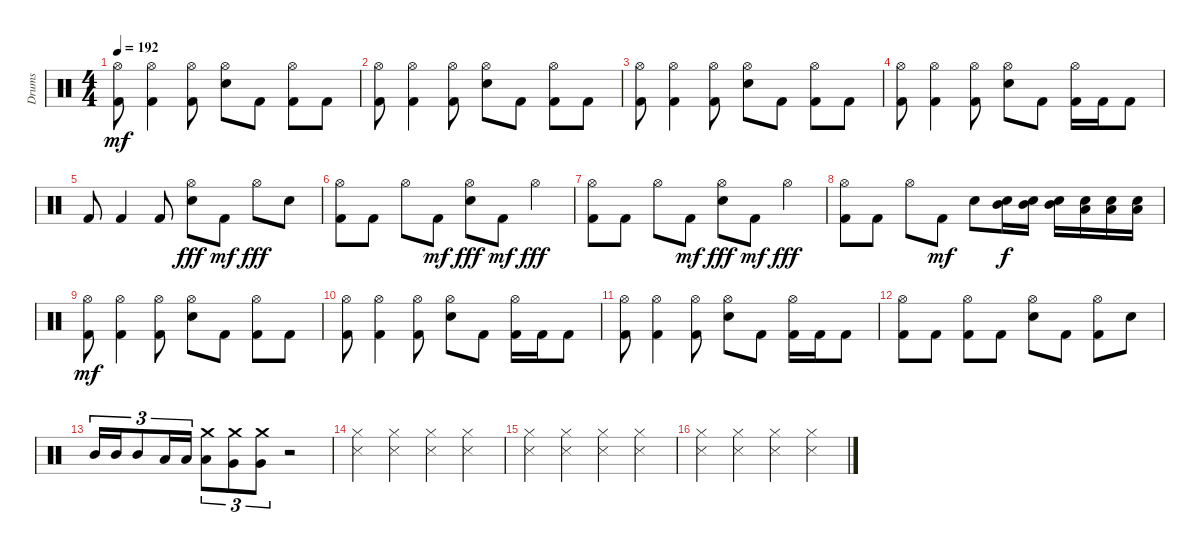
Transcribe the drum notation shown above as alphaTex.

\track ("Drums" "Drums") {instrument percussion}
\staff {score}
\articulation defaults
\ts (4 4)
\tempo 192
\clef neutral
\ks c
("Hi-Hat (open)" "Kick (hit) 2").8{dy mf} ("Hi-Hat (open)" "Kick (hit) 2").4 ("Hi-Hat (open)" "Kick (hit) 2").8 ("Hi-Hat (open)" "Electric Snare (hit)").8 "Kick (hit) 2".8 ("Hi-Hat (open)" "Kick (hit) 2").8 "Kick (hit) 2".8 |
("Hi-Hat (open)" "Kick (hit) 2").8 ("Hi-Hat (open)" "Kick (hit) 2").4 ("Hi-Hat (open)" "Kick (hit) 2").8 ("Hi-Hat (open)" "Electric Snare (hit)").8 "Kick (hit) 2".8 ("Hi-Hat (open)" "Kick (hit) 2").8 "Kick (hit) 2".8 |
("Hi-Hat (open)" "Kick (hit) 2").8 ("Hi-Hat (open)" "Kick (hit) 2").4 ("Hi-Hat (open)" "Kick (hit) 2").8 ("Hi-Hat (open)" "Electric Snare (hit)").8 "Kick (hit) 2".8 ("Hi-Hat (open)" "Kick (hit) 2").8 "Kick (hit) 2".8 |
("Hi-Hat (open)" "Kick (hit) 2").8 ("Hi-Hat (open)" "Kick (hit) 2").4 ("Hi-Hat (open)" "Kick (hit) 2").8 ("Hi-Hat (open)" "Electric Snare (hit)").8 "Kick (hit) 2".8 ("Hi-Hat (open)" "Kick (hit) 2").16 "Kick (hit) 2".16 "Kick (hit) 2".8 |
"Kick (hit) 2".8 "Kick (hit) 2".4 "Kick (hit) 2".8 ("Electric Snare (hit)" "Hi-Hat (open)").8{dy fff} "Kick (hit) 2".8{dy mf} "Hi-Hat (open)".8{dy fff} "Electric Snare (hit)".8 |
("Kick (hit) 2" "Hi-Hat (open)").8 "Kick (hit) 2".8 "Hi-Hat (open)".8 "Kick (hit) 2".8{dy mf} ("Electric Snare (hit)" "Hi-Hat (open)").8{dy fff} "Kick (hit) 2".8{dy mf} "Hi-Hat (open)".4{dy fff} |
("Kick (hit) 2" "Hi-Hat (open)").8 "Kick (hit) 2".8 "Hi-Hat (open)".8 "Kick (hit) 2".8{dy mf} ("Electric Snare (hit)" "Hi-Hat (open)").8{dy fff} "Kick (hit) 2".8{dy mf} "Hi-Hat (open)".4{dy fff} |
("Kick (hit) 2" "Hi-Hat (open)").8 "Kick (hit) 2".8 "Hi-Hat (open)".8 "Kick (hit) 2".8{dy mf} "Electric Snare (hit)".8 ("Electric Snare (hit)" "Mid Tom (hit)").16{dy f} ("Electric Snare (hit)" "Mid Tom (hit)").16 ("Electric Snare (hit)" "Mid Tom (hit)").16 ("Electric Snare (hit)" "Low Tom (hit)").16 ("Electric Snare (hit)" "Low Tom (hit)").16 ("Electric Snare (hit)" "Low Tom (hit)").16 |
("Hi-Hat (open)" "Kick (hit) 2").8{dy mf} ("Hi-Hat (open)" "Kick (hit) 2").4 ("Hi-Hat (open)" "Kick (hit) 2").8 ("Hi-Hat (open)" "Electric Snare (hit)").8 "Kick (hit) 2".8 ("Hi-Hat (open)" "Kick (hit) 2").8 "Kick (hit) 2".8 |
("Hi-Hat (open)" "Kick (hit) 2").8 ("Hi-Hat (open)" "Kick (hit) 2").4 ("Hi-Hat (open)" "Kick (hit) 2").8 ("Hi-Hat (open)" "Electric Snare (hit)").8 "Kick (hit) 2".8 ("Hi-Hat (open)" "Kick (hit) 2").16 "Kick (hit) 2".16 "Kick (hit) 2".8 |
("Hi-Hat (open)" "Kick (hit) 2").8 ("Hi-Hat (open)" "Kick (hit) 2").4 ("Hi-Hat (open)" "Kick (hit) 2").8 ("Hi-Hat (open)" "Electric Snare (hit)").8 "Kick (hit) 2".8 ("Hi-Hat (open)" "Kick (hit) 2").16 "Kick (hit) 2".16 "Kick (hit) 2".8 |
("Hi-Hat (open)" "Kick (hit) 2").8 "Kick (hit) 2".8 ("Hi-Hat (open)" "Kick (hit) 2").8 "Kick (hit) 2".8 ("Hi-Hat (open)" "Electric Snare (hit)").8 "Kick (hit) 2".8 ("Hi-Hat (open)" "Kick (hit) 2").8 "Electric Snare (hit)".8 |
"Mid Tom (hit)".16{tu (3 2)} "Mid Tom (hit)".16{tu (3 2)} "Mid Tom (hit)".8{tu (3 2)} "Low Tom (hit)".16{tu (3 2)} "Low Tom (hit)".16{tu (3 2)} ("Crash medium (hit)" "Low Tom (hit)").8{tu (3 2)} ("Crash medium (hit)" "Very Low Tom (hit)").8{tu (3 2)} ("Crash medium (hit)" "Very Low Tom (hit)").8{tu (3 2)} r.2 |
("Snare (side stick) 3" "Hi-Hat (closed)").4 ("Snare (side stick) 3" "Hi-Hat (closed)").4 ("Snare (side stick) 3" "Hi-Hat (closed)").4 ("Snare (side stick) 3" "Hi-Hat (closed)").4 |
("Snare (side stick) 3" "Hi-Hat (closed)").4 ("Snare (side stick) 3" "Hi-Hat (closed)").4 ("Snare (side stick) 3" "Hi-Hat (closed)").4 ("Snare (side stick) 3" "Hi-Hat (closed)").4 |
("Snare (side stick) 3" "Hi-Hat (closed)").4 ("Snare (side stick) 3" "Hi-Hat (closed)").4 ("Snare (side stick) 3" "Hi-Hat (closed)").4 ("Snare (side stick) 3" "Hi-Hat (closed)").4
